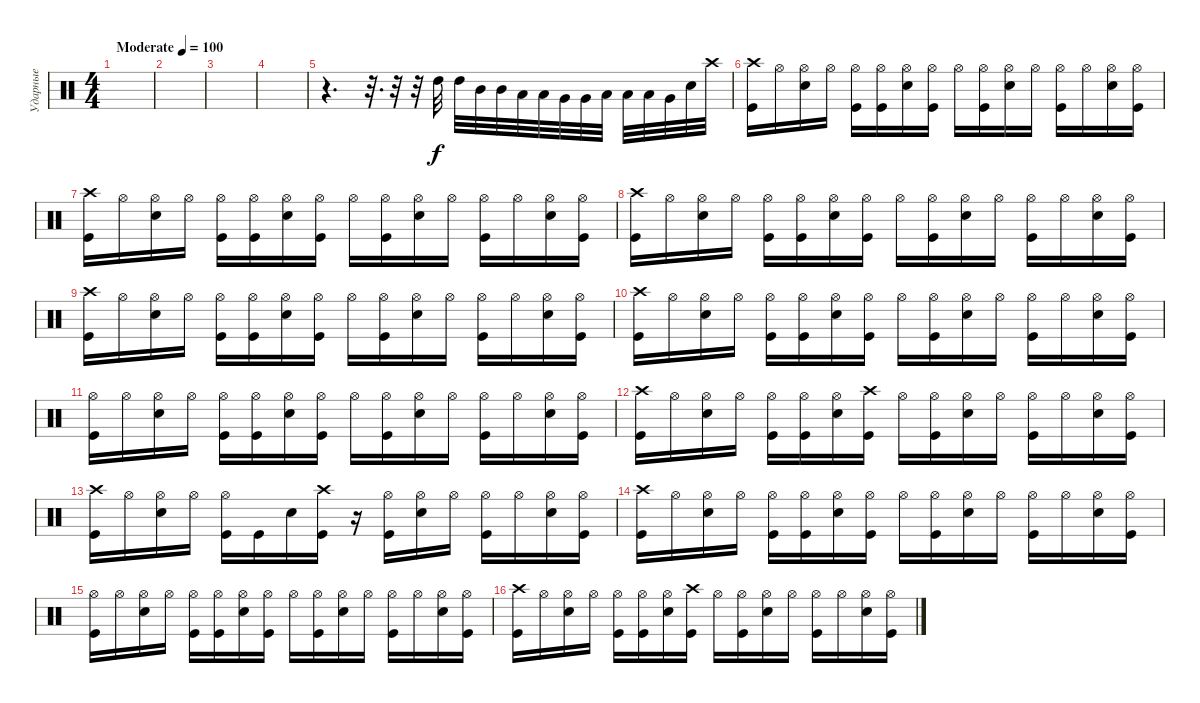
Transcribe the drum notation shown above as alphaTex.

\track ("Ударные" "Ударные") {instrument percussion}
\staff {score}
\articulation defaults
\ts (4 4)
\tempo (100 "Moderate")
\clef neutral
\ks c
|
|
|
|
r.4{d} r.32{d} r.32 r.32 "High Tom (hit)".32 "High Tom (hit)".32 "Mid Tom (hit)".32 "Mid Tom (hit)".32 "Low Tom (hit)".32 "Low Tom (hit)".32 "Very Low Tom (hit)".32 "Very Low Tom (hit)".32 "Low Floor Tom (hit)".32 "Low Floor Tom (hit)".32 "Low Floor Tom (hit)".32 "Very Low Tom (hit)".32 "Electric Snare (hit)".32 "Crash high (hit)".32 |
("Crash high (hit)" "Kick (hit)").16 "Hi-Hat (open)".16 ("Hi-Hat (open)" "Snare (hit) 2").16 "Hi-Hat (open)".16 ("Hi-Hat (open)" "Kick (hit)").16 ("Hi-Hat (open)" "Kick (hit)").16 ("Hi-Hat (open)" "Snare (hit) 2").16 ("Hi-Hat (open)" "Kick (hit)").16 "Hi-Hat (open)".16 ("Hi-Hat (open)" "Kick (hit)").16 ("Hi-Hat (open)" "Snare (hit) 2").16 "Hi-Hat (open)".16 ("Hi-Hat (open)" "Kick (hit)").16 "Hi-Hat (open)".16 ("Hi-Hat (open)" "Snare (hit) 2").16 ("Hi-Hat (open)" "Kick (hit)").16 |
("Crash high (hit)" "Kick (hit)").16 "Hi-Hat (open)".16 ("Hi-Hat (open)" "Snare (hit) 2").16 "Hi-Hat (open)".16 ("Hi-Hat (open)" "Kick (hit)").16 ("Hi-Hat (open)" "Kick (hit)").16 ("Hi-Hat (open)" "Snare (hit) 2").16 ("Hi-Hat (open)" "Kick (hit)").16 "Hi-Hat (open)".16 ("Hi-Hat (open)" "Kick (hit)").16 ("Hi-Hat (open)" "Snare (hit) 2").16 "Hi-Hat (open)".16 ("Hi-Hat (open)" "Kick (hit)").16 "Hi-Hat (open)".16 ("Hi-Hat (open)" "Snare (hit) 2").16 ("Hi-Hat (open)" "Kick (hit)").16 |
("Crash high (hit)" "Kick (hit)").16 "Hi-Hat (open)".16 ("Hi-Hat (open)" "Snare (hit) 2").16 "Hi-Hat (open)".16 ("Hi-Hat (open)" "Kick (hit)").16 ("Hi-Hat (open)" "Kick (hit)").16 ("Hi-Hat (open)" "Snare (hit) 2").16 ("Hi-Hat (open)" "Kick (hit)").16 "Hi-Hat (open)".16 ("Hi-Hat (open)" "Kick (hit)").16 ("Hi-Hat (open)" "Snare (hit) 2").16 "Hi-Hat (open)".16 ("Hi-Hat (open)" "Kick (hit)").16 "Hi-Hat (open)".16 ("Hi-Hat (open)" "Snare (hit) 2").16 ("Hi-Hat (open)" "Kick (hit)").16 |
("Crash high (hit)" "Kick (hit)").16 "Hi-Hat (open)".16 ("Hi-Hat (open)" "Snare (hit) 2").16 "Hi-Hat (open)".16 ("Hi-Hat (open)" "Kick (hit)").16 ("Hi-Hat (open)" "Kick (hit)").16 ("Hi-Hat (open)" "Snare (hit) 2").16 ("Hi-Hat (open)" "Kick (hit)").16 "Hi-Hat (open)".16 ("Hi-Hat (open)" "Kick (hit)").16 ("Hi-Hat (open)" "Snare (hit) 2").16 "Hi-Hat (open)".16 ("Hi-Hat (open)" "Kick (hit)").16 "Hi-Hat (open)".16 ("Hi-Hat (open)" "Snare (hit) 2").16 ("Hi-Hat (open)" "Kick (hit)").16 |
("Crash high (hit)" "Kick (hit)").16 "Hi-Hat (open)".16 ("Hi-Hat (open)" "Snare (hit) 2").16 "Hi-Hat (open)".16 ("Hi-Hat (open)" "Kick (hit)").16 ("Hi-Hat (open)" "Kick (hit)").16 ("Hi-Hat (open)" "Snare (hit) 2").16 ("Hi-Hat (open)" "Kick (hit)").16 "Hi-Hat (open)".16 ("Hi-Hat (open)" "Kick (hit)").16 ("Hi-Hat (open)" "Snare (hit) 2").16 "Hi-Hat (open)".16 ("Hi-Hat (open)" "Kick (hit)").16 "Hi-Hat (open)".16 ("Hi-Hat (open)" "Snare (hit) 2").16 ("Hi-Hat (open)" "Kick (hit)").16 |
("Hi-Hat (open)" "Kick (hit)").16 "Hi-Hat (open)".16 ("Hi-Hat (open)" "Snare (hit) 2").16 "Hi-Hat (open)".16 ("Hi-Hat (open)" "Kick (hit)").16 ("Hi-Hat (open)" "Kick (hit)").16 ("Hi-Hat (open)" "Snare (hit) 2").16 ("Hi-Hat (open)" "Kick (hit)").16 "Hi-Hat (open)".16 ("Hi-Hat (open)" "Kick (hit)").16 ("Hi-Hat (open)" "Snare (hit) 2").16 "Hi-Hat (open)".16 ("Hi-Hat (open)" "Kick (hit)").16 "Hi-Hat (open)".16 ("Hi-Hat (open)" "Snare (hit) 2").16 ("Hi-Hat (open)" "Kick (hit)").16 |
("Crash high (hit)" "Kick (hit)").16 "Hi-Hat (open)".16 ("Hi-Hat (open)" "Snare (hit) 2").16 "Hi-Hat (open)".16 ("Hi-Hat (open)" "Kick (hit)").16 ("Hi-Hat (open)" "Kick (hit)").16 ("Hi-Hat (open)" "Snare (hit) 2").16 ("Crash high (hit)" "Kick (hit)").16 "Hi-Hat (open)".16 ("Hi-Hat (open)" "Kick (hit)").16 ("Hi-Hat (open)" "Snare (hit) 2").16 "Hi-Hat (open)".16 ("Hi-Hat (open)" "Kick (hit)").16 "Hi-Hat (open)".16 ("Hi-Hat (open)" "Snare (hit) 2").16 ("Hi-Hat (open)" "Kick (hit)").16 |
("Crash high (hit)" "Kick (hit)").16 "Hi-Hat (open)".16 ("Hi-Hat (open)" "Snare (hit) 2").16 "Hi-Hat (open)".16 ("Hi-Hat (open)" "Kick (hit)").16 "Kick (hit)".16 "Snare (hit) 2".16 ("Crash high (hit)" "Kick (hit)").16 r.16 ("Hi-Hat (open)" "Kick (hit)").16 ("Hi-Hat (open)" "Snare (hit) 2").16 "Hi-Hat (open)".16 ("Hi-Hat (open)" "Kick (hit)").16 "Hi-Hat (open)".16 ("Hi-Hat (open)" "Snare (hit) 2").16 ("Hi-Hat (open)" "Kick (hit)").16 |
("Crash high (hit)" "Kick (hit)").16 "Hi-Hat (open)".16 ("Hi-Hat (open)" "Snare (hit) 2").16 "Hi-Hat (open)".16 ("Hi-Hat (open)" "Kick (hit)").16 ("Hi-Hat (open)" "Kick (hit)").16 ("Hi-Hat (open)" "Snare (hit) 2").16 ("Hi-Hat (open)" "Kick (hit)").16 "Hi-Hat (open)".16 ("Hi-Hat (open)" "Kick (hit)").16 ("Hi-Hat (open)" "Snare (hit) 2").16 "Hi-Hat (open)".16 ("Hi-Hat (open)" "Kick (hit)").16 "Hi-Hat (open)".16 ("Hi-Hat (open)" "Snare (hit) 2").16 ("Hi-Hat (open)" "Kick (hit)").16 |
("Hi-Hat (open)" "Kick (hit)").16 "Hi-Hat (open)".16 ("Hi-Hat (open)" "Snare (hit) 2").16 "Hi-Hat (open)".16 ("Hi-Hat (open)" "Kick (hit)").16 ("Hi-Hat (open)" "Kick (hit)").16 ("Hi-Hat (open)" "Snare (hit) 2").16 ("Hi-Hat (open)" "Kick (hit)").16 "Hi-Hat (open)".16 ("Hi-Hat (open)" "Kick (hit)").16 ("Hi-Hat (open)" "Snare (hit) 2").16 "Hi-Hat (open)".16 ("Hi-Hat (open)" "Kick (hit)").16 "Hi-Hat (open)".16 ("Hi-Hat (open)" "Snare (hit) 2").16 ("Hi-Hat (open)" "Kick (hit)").16 |
("Crash high (hit)" "Kick (hit)").16 "Hi-Hat (open)".16 ("Hi-Hat (open)" "Snare (hit) 2").16 "Hi-Hat (open)".16 ("Hi-Hat (open)" "Kick (hit)").16 ("Hi-Hat (open)" "Kick (hit)").16 ("Hi-Hat (open)" "Snare (hit) 2").16 ("Crash high (hit)" "Kick (hit)").16 "Hi-Hat (open)".16 ("Hi-Hat (open)" "Kick (hit)").16 ("Hi-Hat (open)" "Snare (hit) 2").16 "Hi-Hat (open)".16 ("Hi-Hat (open)" "Kick (hit)").16 "Hi-Hat (open)".16 ("Hi-Hat (open)" "Snare (hit) 2").16 ("Hi-Hat (open)" "Kick (hit)").16
